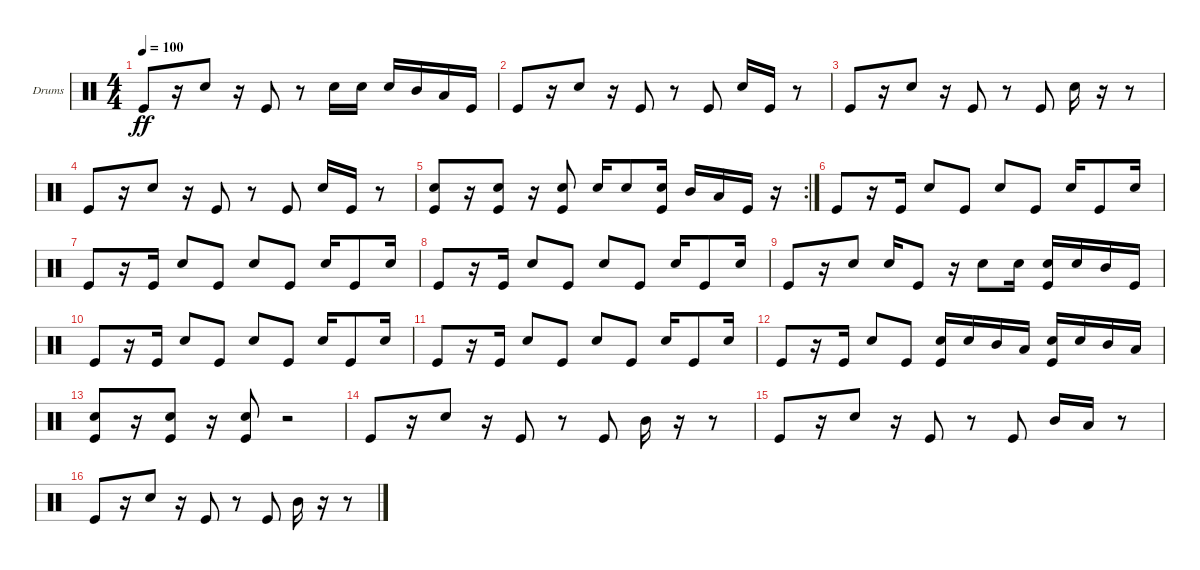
\defaultSystemsLayout 4
\bracketExtendMode groupsimilarinstruments
\firstSystemTrackNameOrientation horizontal
\otherSystemsTrackNameOrientation horizontal
\track ("Drumkit 1" "Drums") {instrument percussion}
\staff {score}
\articulation defaults
\ts (4 4)
\tempo 100
\clef neutral
\ks c "Kick (hit)".8{dy ff}
r.16 "Snare (hit) 2".8 r.16 "Kick (hit)".8 r.8 "Snare (hit) 2".16 "Snare (hit) 2".16 "Snare (hit) 2".16 "Mid Tom (hit)".16 "Low Tom (hit)".16 "Kick (hit)".16 |
"Kick (hit)".8 r.16 "Snare (hit) 2".8 r.16 "Kick (hit)".8 r.8 "Kick (hit)".8 "Snare (hit) 2".16 "Kick (hit)".16 r.8 |
"Kick (hit)".8 r.16 "Snare (hit) 2".8 r.16 "Kick (hit)".8 r.8 "Kick (hit)".8 "Snare (hit) 2".16 r.16 r.8 |
"Kick (hit)".8 r.16 "Snare (hit) 2".8 r.16 "Kick (hit)".8 r.8 "Kick (hit)".8 "Snare (hit) 2".16 "Kick (hit)".16 r.8 |
\rc 2
("Kick (hit)" "Snare (hit) 2").8 r.16 ("Kick (hit)" "Snare (hit) 2").8 r.16 ("Kick (hit)" "Snare (hit) 2").8 "Snare (hit) 2".16 "Snare (hit) 2".8 ("Snare (hit) 2" "Kick (hit)").16 "Mid Tom (hit)".16 "Low Tom (hit)".16 "Kick (hit)".16 r.16 |
"Kick (hit)".8 r.16 "Kick (hit)".16 "Snare (hit) 2".8 "Kick (hit)".8 "Snare (hit) 2".8 "Kick (hit)".8 "Snare (hit) 2".16 "Kick (hit)".8 "Snare (hit) 2".16 |
"Kick (hit)".8 r.16 "Kick (hit)".16 "Snare (hit) 2".8 "Kick (hit)".8 "Snare (hit) 2".8 "Kick (hit)".8 "Snare (hit) 2".16 "Kick (hit)".8 "Snare (hit) 2".16 |
"Kick (hit)".8 r.16 "Kick (hit)".16 "Snare (hit) 2".8 "Kick (hit)".8 "Snare (hit) 2".8 "Kick (hit)".8 "Snare (hit) 2".16 "Kick (hit)".8 "Snare (hit) 2".16 |
"Kick (hit)".8 r.16 "Snare (hit) 2".8 "Snare (hit) 2".16 "Kick (hit)".8 r.16 "Snare (hit) 2".8 "Snare (hit) 2".16 ("Snare (hit) 2" "Kick (hit)").16 "Snare (hit) 2".16 "Mid Tom (hit)".16 "Kick (hit)".16 |
"Kick (hit)".8 r.16 "Kick (hit)".16 "Snare (hit) 2".8 "Kick (hit)".8 "Snare (hit) 2".8 "Kick (hit)".8 "Snare (hit) 2".16 "Kick (hit)".8 "Snare (hit) 2".16 |
"Kick (hit)".8 r.16 "Kick (hit)".16 "Snare (hit) 2".8 "Kick (hit)".8 "Snare (hit) 2".8 "Kick (hit)".8 "Snare (hit) 2".16 "Kick (hit)".8 "Snare (hit) 2".16 |
"Kick (hit)".8 r.16 "Kick (hit)".16 "Snare (hit) 2".8 "Kick (hit)".8 ("Snare (hit) 2" "Kick (hit)").16 "Snare (hit) 2".16 "Mid Tom (hit)".16 "Low Tom (hit)".16 ("Kick (hit)" "Snare (hit) 2").16 "Snare (hit) 2".16 "Mid Tom (hit)".16 "Low Tom (hit)".16 |
("Kick (hit)" "Snare (hit) 2").8 r.16 ("Kick (hit)" "Snare (hit) 2").8 r.16 ("Kick (hit)" "Snare (hit) 2").8 r.2 |
"Kick (hit)".8 r.16 "Snare (hit) 2".8 r.16 "Kick (hit)".8 r.8 "Kick (hit)".8 "Mid Tom (hit)".16 r.16 r.8 |
"Kick (hit)".8 r.16 "Snare (hit) 2".8 r.16 "Kick (hit)".8 r.8 "Kick (hit)".8 "Mid Tom (hit)".16 "Low Tom (hit)".16 r.8 |
"Kick (hit)".8 r.16 "Snare (hit) 2".8 r.16 "Kick (hit)".8 r.8 "Kick (hit)".8 "Mid Tom (hit)".16 r.16 r.8
